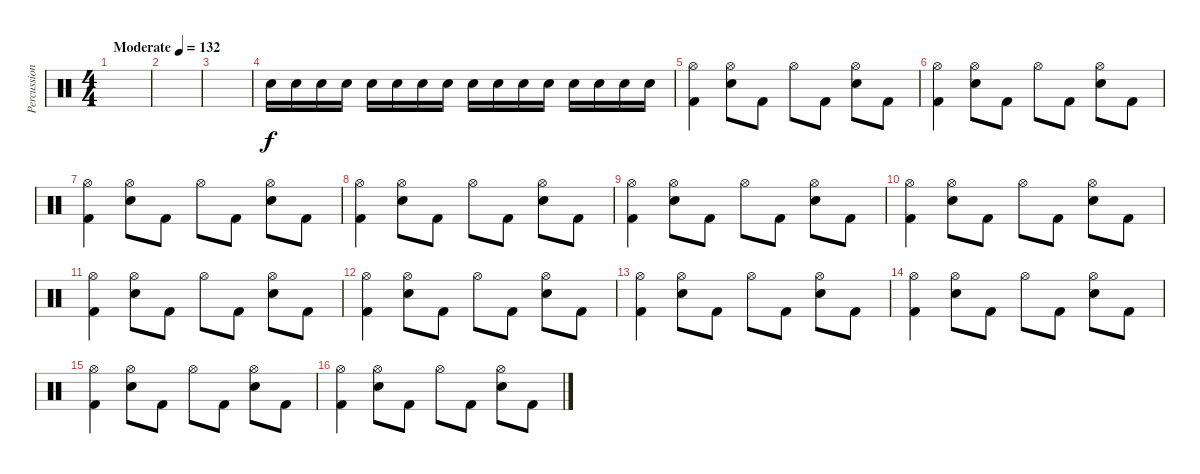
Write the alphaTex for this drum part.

\track ("Percussions" "Percussion") {instrument percussion}
\staff {score}
\articulation defaults
\ts (4 4)
\tempo (132 "Moderate")
\clef neutral
\ks c
|
|
|
"Electric Snare (hit)".16 "Electric Snare (hit)".16 "Electric Snare (hit)".16 "Electric Snare (hit)".16 "Electric Snare (hit)".16 "Electric Snare (hit)".16 "Electric Snare (hit)".16 "Electric Snare (hit)".16 "Electric Snare (hit)".16 "Electric Snare (hit)".16 "Electric Snare (hit)".16 "Electric Snare (hit)".16 "Electric Snare (hit)".16 "Electric Snare (hit)".16 "Electric Snare (hit)".16 "Electric Snare (hit)".16 |
("Kick (hit) 2" "Hi-Hat (open)").4 ("Electric Snare (hit)" "Hi-Hat (open)").8 "Kick (hit) 2".8 "Hi-Hat (open)".8 "Kick (hit) 2".8 ("Electric Snare (hit)" "Hi-Hat (open)").8 "Kick (hit) 2".8 |
("Kick (hit) 2" "Hi-Hat (open)").4 ("Electric Snare (hit)" "Hi-Hat (open)").8 "Kick (hit) 2".8 "Hi-Hat (open)".8 "Kick (hit) 2".8 ("Electric Snare (hit)" "Hi-Hat (open)").8 "Kick (hit) 2".8 |
("Kick (hit) 2" "Hi-Hat (open)").4 ("Electric Snare (hit)" "Hi-Hat (open)").8 "Kick (hit) 2".8 "Hi-Hat (open)".8 "Kick (hit) 2".8 ("Electric Snare (hit)" "Hi-Hat (open)").8 "Kick (hit) 2".8 |
("Kick (hit) 2" "Hi-Hat (open)").4 ("Electric Snare (hit)" "Hi-Hat (open)").8 "Kick (hit) 2".8 "Hi-Hat (open)".8 "Kick (hit) 2".8 ("Electric Snare (hit)" "Hi-Hat (open)").8 "Kick (hit) 2".8 |
("Kick (hit) 2" "Hi-Hat (open)").4 ("Electric Snare (hit)" "Hi-Hat (open)").8 "Kick (hit) 2".8 "Hi-Hat (open)".8 "Kick (hit) 2".8 ("Electric Snare (hit)" "Hi-Hat (open)").8 "Kick (hit) 2".8 |
("Kick (hit) 2" "Hi-Hat (open)").4 ("Electric Snare (hit)" "Hi-Hat (open)").8 "Kick (hit) 2".8 "Hi-Hat (open)".8 "Kick (hit) 2".8 ("Electric Snare (hit)" "Hi-Hat (open)").8 "Kick (hit) 2".8 |
("Kick (hit) 2" "Hi-Hat (open)").4 ("Electric Snare (hit)" "Hi-Hat (open)").8 "Kick (hit) 2".8 "Hi-Hat (open)".8 "Kick (hit) 2".8 ("Electric Snare (hit)" "Hi-Hat (open)").8 "Kick (hit) 2".8 |
("Kick (hit) 2" "Hi-Hat (open)").4 ("Electric Snare (hit)" "Hi-Hat (open)").8 "Kick (hit) 2".8 "Hi-Hat (open)".8 "Kick (hit) 2".8 ("Electric Snare (hit)" "Hi-Hat (open)").8 "Kick (hit) 2".8 |
("Kick (hit) 2" "Hi-Hat (open)").4 ("Electric Snare (hit)" "Hi-Hat (open)").8 "Kick (hit) 2".8 "Hi-Hat (open)".8 "Kick (hit) 2".8 ("Electric Snare (hit)" "Hi-Hat (open)").8 "Kick (hit) 2".8 |
("Kick (hit) 2" "Hi-Hat (open)").4 ("Electric Snare (hit)" "Hi-Hat (open)").8 "Kick (hit) 2".8 "Hi-Hat (open)".8 "Kick (hit) 2".8 ("Electric Snare (hit)" "Hi-Hat (open)").8 "Kick (hit) 2".8 |
("Kick (hit) 2" "Hi-Hat (open)").4 ("Electric Snare (hit)" "Hi-Hat (open)").8 "Kick (hit) 2".8 "Hi-Hat (open)".8 "Kick (hit) 2".8 ("Electric Snare (hit)" "Hi-Hat (open)").8 "Kick (hit) 2".8 |
("Kick (hit) 2" "Hi-Hat (open)").4 ("Electric Snare (hit)" "Hi-Hat (open)").8 "Kick (hit) 2".8 "Hi-Hat (open)".8 "Kick (hit) 2".8 ("Electric Snare (hit)" "Hi-Hat (open)").8 "Kick (hit) 2".8
